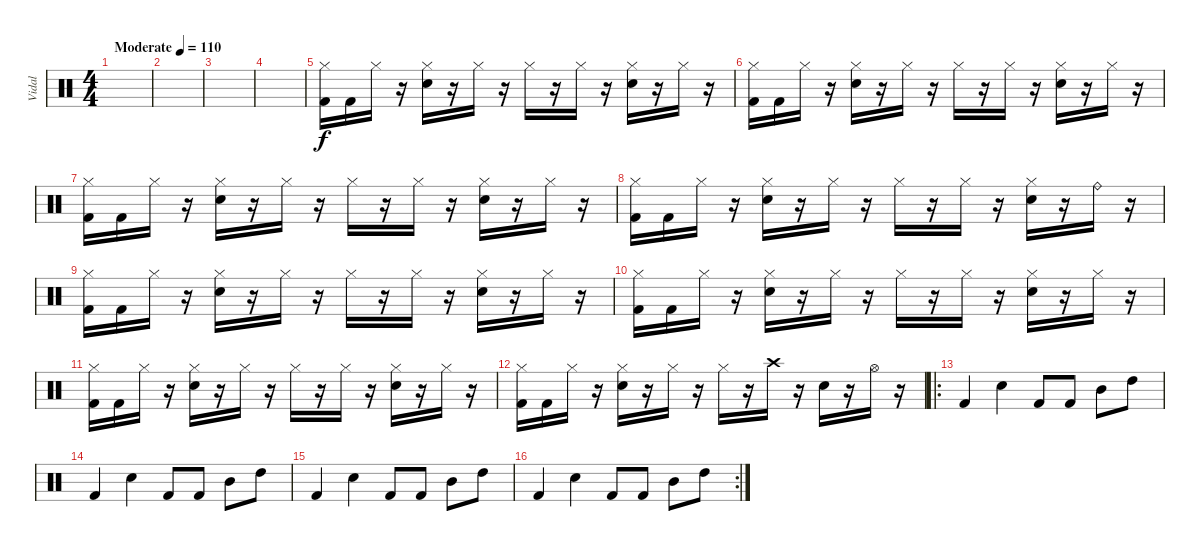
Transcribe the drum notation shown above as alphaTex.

\track ("Vidal" "Vidal") {instrument percussion}
\staff {score}
\articulation defaults
\ts (4 4)
\tempo (110 "Moderate")
\clef neutral
\ks c
|
|
|
|
("Hi-Hat (closed)" "Kick (hit) 2").16 "Kick (hit) 2".16 "Hi-Hat (closed)".16 r.16 ("Hi-Hat (closed)" "Snare (hit) 2").16 r.16 "Hi-Hat (closed)".16 r.16 "Hi-Hat (closed)".16 r.16 "Hi-Hat (closed)".16 r.16 ("Hi-Hat (closed)" "Snare (hit) 2").16 r.16 "Hi-Hat (closed)".16 r.16 |
("Hi-Hat (closed)" "Kick (hit) 2").16 "Kick (hit) 2".16 "Hi-Hat (closed)".16 r.16 ("Hi-Hat (closed)" "Snare (hit) 2").16 r.16 "Hi-Hat (closed)".16 r.16 "Hi-Hat (closed)".16 r.16 "Hi-Hat (closed)".16 r.16 ("Hi-Hat (closed)" "Snare (hit) 2").16 r.16 "Hi-Hat (closed)".16 r.16 |
("Hi-Hat (closed)" "Kick (hit) 2").16 "Kick (hit) 2".16 "Hi-Hat (closed)".16 r.16 ("Hi-Hat (closed)" "Snare (hit) 2").16 r.16 "Hi-Hat (closed)".16 r.16 "Hi-Hat (closed)".16 r.16 "Hi-Hat (closed)".16 r.16 ("Hi-Hat (closed)" "Snare (hit) 2").16 r.16 "Hi-Hat (closed)".16 r.16 |
("Hi-Hat (closed)" "Kick (hit) 2").16 "Kick (hit) 2".16 "Hi-Hat (closed)".16 r.16 ("Hi-Hat (closed)" "Snare (hit) 2").16 r.16 "Hi-Hat (closed)".16 r.16 "Hi-Hat (closed)".16 r.16 "Hi-Hat (closed)".16 r.16 ("Hi-Hat (closed)" "Snare (hit) 2").16 r.16 "Ride (bell)".16 r.16 |
("Hi-Hat (closed)" "Kick (hit) 2").16 "Kick (hit) 2".16 "Hi-Hat (closed)".16 r.16 ("Hi-Hat (closed)" "Snare (hit) 2").16 r.16 "Hi-Hat (closed)".16 r.16 "Hi-Hat (closed)".16 r.16 "Hi-Hat (closed)".16 r.16 ("Hi-Hat (closed)" "Snare (hit) 2").16 r.16 "Hi-Hat (closed)".16 r.16 |
("Hi-Hat (closed)" "Kick (hit) 2").16 "Kick (hit) 2".16 "Hi-Hat (closed)".16 r.16 ("Hi-Hat (closed)" "Snare (hit) 2").16 r.16 "Hi-Hat (closed)".16 r.16 "Hi-Hat (closed)".16 r.16 "Hi-Hat (closed)".16 r.16 ("Hi-Hat (closed)" "Snare (hit) 2").16 r.16 "Hi-Hat (closed)".16 r.16 |
("Hi-Hat (closed)" "Kick (hit) 2").16 "Kick (hit) 2".16 "Hi-Hat (closed)".16 r.16 ("Hi-Hat (closed)" "Snare (hit) 2").16 r.16 "Hi-Hat (closed)".16 r.16 "Hi-Hat (closed)".16 r.16 "Hi-Hat (closed)".16 r.16 ("Hi-Hat (closed)" "Snare (hit) 2").16 r.16 "Hi-Hat (closed)".16 r.16 |
("Hi-Hat (closed)" "Kick (hit) 2").16 "Kick (hit) 2".16 "Hi-Hat (closed)".16 r.16 ("Hi-Hat (closed)" "Snare (hit) 2").16 r.16 "Hi-Hat (closed)".16 r.16 "Hi-Hat (closed)".16 r.16 "Crash high (hit)".16 r.16 "Snare (hit) 2".16 r.16 "Hi-Hat (open)".16 r.16 |
\ro "Kick (hit) 2".4 "Snare (hit) 2".4 "Kick (hit) 2".8 "Kick (hit) 2".8 "Mid Tom (hit)".8 "High Tom (hit)".8
|
"Kick (hit) 2".4 "Snare (hit) 2".4 "Kick (hit) 2".8 "Kick (hit) 2".8 "Mid Tom (hit)".8 "High Tom (hit)".8 |
"Kick (hit) 2".4 "Snare (hit) 2".4 "Kick (hit) 2".8 "Kick (hit) 2".8 "Mid Tom (hit)".8 "High Tom (hit)".8 |
\rc 2 "Kick (hit) 2".4 "Snare (hit) 2".4 "Kick (hit) 2".8 "Kick (hit) 2".8 "Mid Tom (hit)".8 "High Tom (hit)".8
